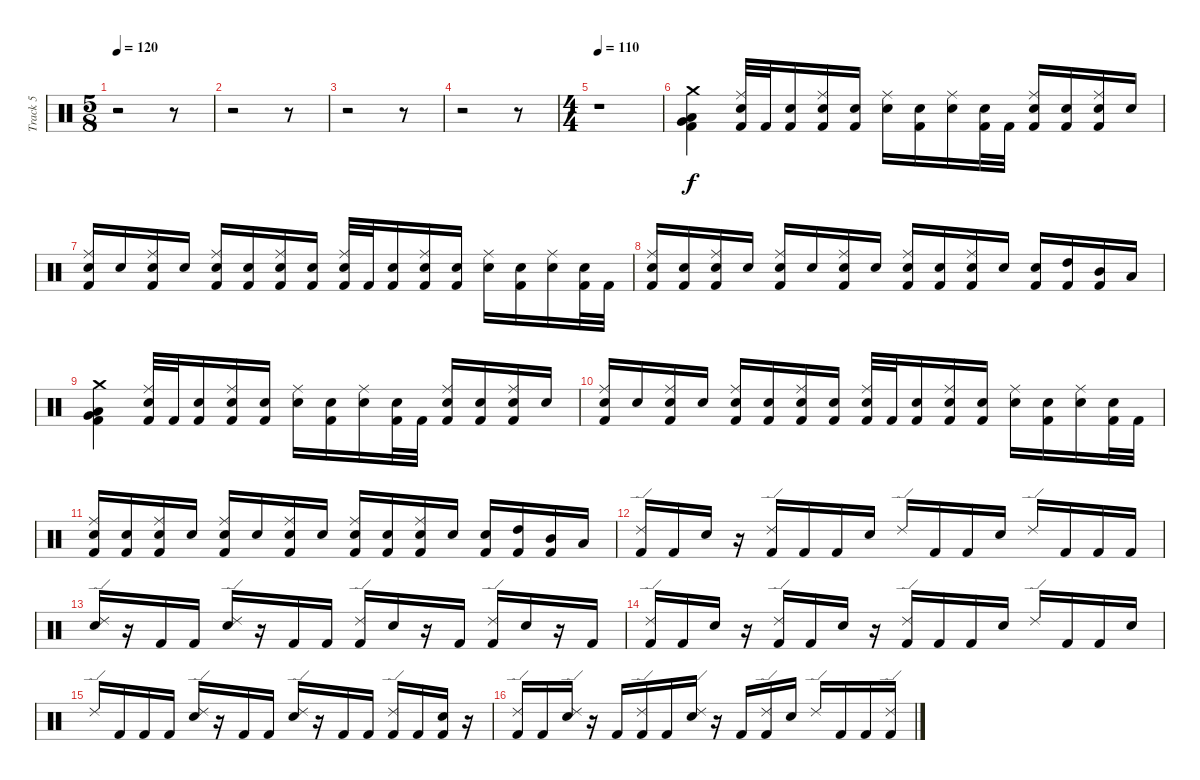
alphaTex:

\track ("Track 5" "Track 5") {instrument percussion}
\staff {score}
\articulation defaults
\ts (5 8)
\tempo 120
\clef neutral
\ks c
r.2{dy f} r.8 |
r.2 r.8 |
r.2 r.8 |
r.2 r.8 |
\ts (4 4)
\tempo 110
r.1 |
("Crash medium (hit)" "Low Floor Tom (hit)" "Very Low Tom (hit)" "Kick (hit) 2").4 ("Ride (middle)" "Electric Snare (hit)" "Kick (hit) 2").32 "Kick (hit) 2".32 ("Electric Snare (hit)" "Kick (hit) 2").16 ("Ride (middle)" "Electric Snare (hit)" "Kick (hit) 2").16 ("Electric Snare (hit)" "Kick (hit) 2").16 ("Ride (middle)" "Electric Snare (hit)").16 ("Electric Snare (hit)" "Kick (hit) 2").16 ("Ride (middle)" "Electric Snare (hit)").16 ("Electric Snare (hit)" "Kick (hit) 2").32 "Kick (hit) 2".32 ("Ride (middle)" "Electric Snare (hit)" "Kick (hit) 2").16 ("Electric Snare (hit)" "Kick (hit) 2").16 ("Ride (middle)" "Electric Snare (hit)" "Kick (hit) 2").16 "Electric Snare (hit)".16 |
("Ride (middle)" "Electric Snare (hit)" "Kick (hit) 2").16 "Electric Snare (hit)".16 ("Ride (middle)" "Electric Snare (hit)" "Kick (hit) 2").16 "Electric Snare (hit)".16 ("Ride (middle)" "Electric Snare (hit)" "Kick (hit) 2").16 ("Electric Snare (hit)" "Kick (hit) 2").16 ("Ride (middle)" "Electric Snare (hit)" "Kick (hit) 2").16 ("Electric Snare (hit)" "Kick (hit) 2").16 ("Ride (middle)" "Electric Snare (hit)" "Kick (hit) 2").32 "Kick (hit) 2".32 ("Electric Snare (hit)" "Kick (hit) 2").16 ("Ride (middle)" "Electric Snare (hit)" "Kick (hit) 2").16 ("Electric Snare (hit)" "Kick (hit) 2").16 ("Ride (middle)" "Electric Snare (hit)").16 ("Electric Snare (hit)" "Kick (hit) 2").16 ("Ride (middle)" "Electric Snare (hit)").16 ("Electric Snare (hit)" "Kick (hit) 2").32 "Kick (hit) 2".32 |
("Ride (middle)" "Electric Snare (hit)" "Kick (hit) 2").16 ("Electric Snare (hit)" "Kick (hit) 2").16 ("Ride (middle)" "Electric Snare (hit)" "Kick (hit) 2").16 "Electric Snare (hit)".16 ("Ride (middle)" "Electric Snare (hit)" "Kick (hit) 2").16 "Electric Snare (hit)".16 ("Ride (middle)" "Electric Snare (hit)" "Kick (hit) 2").16 "Electric Snare (hit)".16 ("Ride (middle)" "Electric Snare (hit)" "Kick (hit) 2").16 ("Electric Snare (hit)" "Kick (hit) 2").16 ("Ride (middle)" "Electric Snare (hit)" "Kick (hit) 2").16 "Electric Snare (hit)".16 ("Electric Snare (hit)" "Kick (hit) 2").16 ("High Tom (hit)" "Kick (hit) 2").16 ("Mid Tom (hit)" "Kick (hit) 2").16 "Low Tom (hit)".16 |
("Crash medium (hit)" "Low Floor Tom (hit)" "Very Low Tom (hit)" "Kick (hit) 2").4 ("Ride (middle)" "Electric Snare (hit)" "Kick (hit) 2").32 "Kick (hit) 2".32 ("Electric Snare (hit)" "Kick (hit) 2").16 ("Ride (middle)" "Electric Snare (hit)" "Kick (hit) 2").16 ("Electric Snare (hit)" "Kick (hit) 2").16 ("Ride (middle)" "Electric Snare (hit)").16 ("Electric Snare (hit)" "Kick (hit) 2").16 ("Ride (middle)" "Electric Snare (hit)").16 ("Electric Snare (hit)" "Kick (hit) 2").32 "Kick (hit) 2".32 ("Ride (middle)" "Electric Snare (hit)" "Kick (hit) 2").16 ("Electric Snare (hit)" "Kick (hit) 2").16 ("Ride (middle)" "Electric Snare (hit)" "Kick (hit) 2").16 "Electric Snare (hit)".16 |
("Ride (middle)" "Electric Snare (hit)" "Kick (hit) 2").16 "Electric Snare (hit)".16 ("Ride (middle)" "Electric Snare (hit)" "Kick (hit) 2").16 "Electric Snare (hit)".16 ("Ride (middle)" "Electric Snare (hit)" "Kick (hit) 2").16 ("Electric Snare (hit)" "Kick (hit) 2").16 ("Ride (middle)" "Electric Snare (hit)" "Kick (hit) 2").16 ("Electric Snare (hit)" "Kick (hit) 2").16 ("Ride (middle)" "Electric Snare (hit)" "Kick (hit) 2").32 "Kick (hit) 2".32 ("Electric Snare (hit)" "Kick (hit) 2").16 ("Ride (middle)" "Electric Snare (hit)" "Kick (hit) 2").16 ("Electric Snare (hit)" "Kick (hit) 2").16 ("Ride (middle)" "Electric Snare (hit)").16 ("Electric Snare (hit)" "Kick (hit) 2").16 ("Ride (middle)" "Electric Snare (hit)").16 ("Electric Snare (hit)" "Kick (hit) 2").32 "Kick (hit) 2".32 |
("Ride (middle)" "Electric Snare (hit)" "Kick (hit) 2").16 ("Electric Snare (hit)" "Kick (hit) 2").16 ("Ride (middle)" "Electric Snare (hit)" "Kick (hit) 2").16 "Electric Snare (hit)".16 ("Ride (middle)" "Electric Snare (hit)" "Kick (hit) 2").16 "Electric Snare (hit)".16 ("Ride (middle)" "Electric Snare (hit)" "Kick (hit) 2").16 "Electric Snare (hit)".16 ("Ride (middle)" "Electric Snare (hit)" "Kick (hit) 2").16 ("Electric Snare (hit)" "Kick (hit) 2").16 ("Ride (middle)" "Electric Snare (hit)" "Kick (hit) 2").16 "Electric Snare (hit)".16 ("Electric Snare (hit)" "Kick (hit) 2").16 ("High Tom (hit)" "Kick (hit) 2").16 ("Mid Tom (hit)" "Kick (hit) 2").16 "Low Tom (hit)".16 |
("Ride (edge) 2" "Kick (hit) 2").16 "Kick (hit) 2".16 "Electric Snare (hit)".16 r.16 ("Ride (edge) 2" "Kick (hit) 2").16 "Kick (hit) 2".16 "Kick (hit) 2".16 "Electric Snare (hit)".16 "Ride (edge) 2".16 "Kick (hit) 2".16 "Kick (hit) 2".16 "Electric Snare (hit)".16 "Ride (edge) 2".16 "Kick (hit) 2".16 "Kick (hit) 2".16 "Kick (hit) 2".16 |
("Ride (edge) 2" "Electric Snare (hit)").16 r.16 "Kick (hit) 2".16 "Kick (hit) 2".16 ("Ride (edge) 2" "Electric Snare (hit)").16 r.16 "Kick (hit) 2".16 "Kick (hit) 2".16 ("Ride (edge) 2" "Kick (hit) 2").16 "Electric Snare (hit)".16 r.16 "Kick (hit) 2".16 ("Ride (edge) 2" "Kick (hit) 2").16 "Electric Snare (hit)".16 r.16 "Kick (hit) 2".16 |
("Ride (edge) 2" "Kick (hit) 2").16 "Kick (hit) 2".16 "Electric Snare (hit)".16 r.16 ("Ride (edge) 2" "Kick (hit) 2").16 "Kick (hit) 2".16 "Electric Snare (hit)".16 r.16 ("Ride (edge) 2" "Kick (hit) 2").16 "Kick (hit) 2".16 "Kick (hit) 2".16 "Electric Snare (hit)".16 "Ride (edge) 2".16 "Kick (hit) 2".16 "Kick (hit) 2".16 "Electric Snare (hit)".16 |
"Ride (edge) 2".16 "Kick (hit) 2".16 "Kick (hit) 2".16 "Kick (hit) 2".16 ("Ride (edge) 2" "Electric Snare (hit)").16 r.16 "Kick (hit) 2".16 "Kick (hit) 2".16 ("Ride (edge) 2" "Electric Snare (hit)").16 r.16 "Kick (hit) 2".16 "Kick (hit) 2".16 ("Ride (edge) 2" "Kick (hit) 2").16 "Kick (hit) 2".16 ("Electric Snare (hit)" "Kick (hit) 2").16 r.16 |
("Ride (edge) 2" "Kick (hit) 2").16 "Kick (hit) 2".16 ("Ride (edge) 2" "Electric Snare (hit)").16 r.16 "Kick (hit) 2".16 ("Ride (edge) 2" "Kick (hit) 2").16 "Kick (hit) 2".16 ("Ride (edge) 2" "Electric Snare (hit)").16 r.16 "Kick (hit) 2".16 ("Ride (edge) 2" "Kick (hit) 2").16 "Electric Snare (hit)".16 "Ride (edge) 2".16 "Kick (hit) 2".16 "Kick (hit) 2".16 ("Ride (edge) 2" "Kick (hit) 2").16
